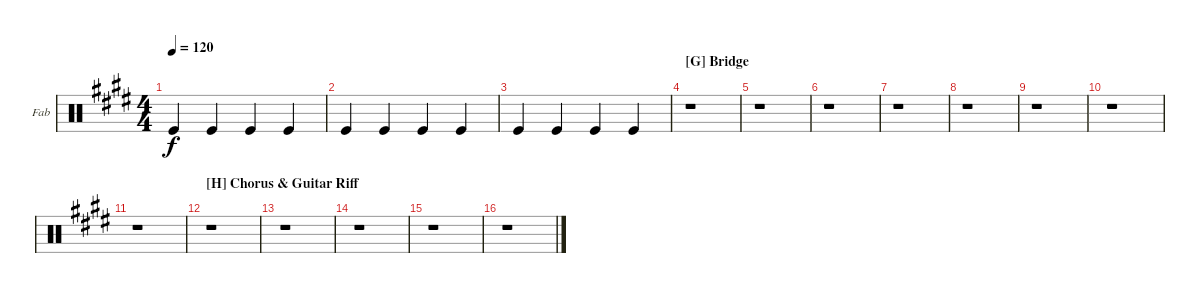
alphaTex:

\bracketExtendMode groupsimilarinstruments
\firstSystemTrackNameOrientation horizontal
\otherSystemsTrackNameOrientation horizontal
\track ("Tambourine" "Fab") {instrument percussion}
\staff {score}
\articulation defaults
\ts (4 4)
\tempo 120
\clef neutral
\ks e "Kick (hit)".4{dy f} "Kick (hit)".4 "Kick (hit)".4 "Kick (hit)".4
|
"Kick (hit)".4 "Kick (hit)".4 "Kick (hit)".4 "Kick (hit)".4 |
"Kick (hit)".4 "Kick (hit)".4 "Kick (hit)".4 "Kick (hit)".4 |
\section ("G" "Bridge")
r.1 |
r.1 |
r.1 |
r.1 |
r.1 |
r.1 |
r.1 |
r.1 |
\section ("H" "Chorus & Guitar Riff")
r.1 |
r.1 |
r.1 |
r.1 |
r.1
